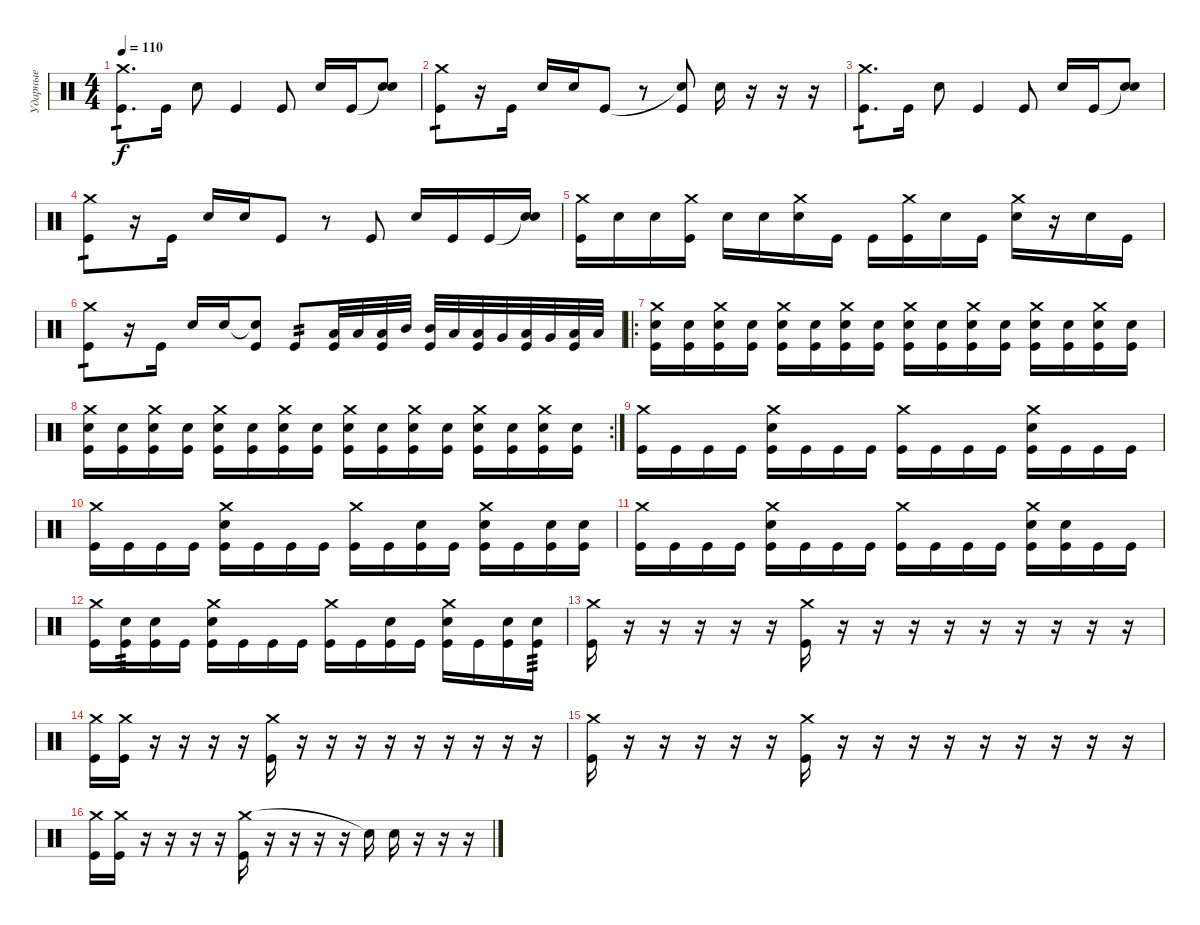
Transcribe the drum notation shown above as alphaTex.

\track ("Ударные" "Ударные") {instrument percussion}
\staff {score}
\articulation defaults
\ts (4 4)
\tempo 110
\clef neutral
\ks c
("Crash medium (hit)" "Kick (hit)").8{d tp 1 dy f} "Kick (hit)".16 "Electric Snare (hit)".8 "Kick (hit)".4 "Kick (hit)".8 "Electric Snare (hit)".16 "Kick (hit)".16 ("Snare (hit)"{t} "Electric Snare (hit)").8 |
("Crash medium (hit)" "Kick (hit)").8{tp 1} r.16 "Kick (hit)".16 "Electric Snare (hit)".16 "Electric Snare (hit)".16 "Kick (hit)".8 r.8 ("Snare (hit)"{t} "Kick (hit)").8 "Electric Snare (hit)".16 r.16 r.16 r.16 |
("Crash medium (hit)" "Kick (hit)").8{d tp 1} "Kick (hit)".16 "Electric Snare (hit)".8 "Kick (hit)".4 "Kick (hit)".8 "Electric Snare (hit)".16 "Kick (hit)".16 ("Snare (hit)"{t} "Electric Snare (hit)").8 |
("Crash medium (hit)" "Kick (hit)").8{tp 1} r.16 "Kick (hit)".16 "Electric Snare (hit)".16 "Electric Snare (hit)".16 "Kick (hit)".8 r.8 "Kick (hit)".8 "Electric Snare (hit)".16 "Kick (hit)".16 "Kick (hit)".16 ("Snare (hit)"{t} "Electric Snare (hit)").16 |
("Crash medium (hit)" "Kick (hit)").16 "Electric Snare (hit)".16 "Electric Snare (hit)".16 ("Crash medium (hit)" "Kick (hit)").16 "Electric Snare (hit)".16 "Electric Snare (hit)".16 ("Crash medium (hit)" "Electric Snare (hit)").16 "Kick (hit)".16 "Kick (hit)".16 ("Crash medium (hit)" "Kick (hit)").16 "Electric Snare (hit)".16 "Kick (hit)".16 ("Crash medium (hit)" "Electric Snare (hit)").16 r.16 "Electric Snare (hit)".16 "Kick (hit)".16 |
("Crash medium (hit)" "Kick (hit)").8{tp 1} r.16 "Kick (hit)".16 "Electric Snare (hit)".16 "Electric Snare (hit)".16 ("Snare (hit)"{t} "Kick (hit)").8 "Kick (hit)".8{tp 2} ("Low Tom (hit)" "Kick (hit)").32 "Low Tom (hit)".32 ("Low Tom (hit)" "Kick (hit)").32 "Mid Tom (hit)".32 ("Mid Tom (hit)" "Kick (hit)").32 "Low Tom (hit)".32 ("Low Tom (hit)" "Kick (hit)").32 "Very Low Tom (hit)".32 ("Low Floor Tom (hit)" "Kick (hit)").32 "Very Low Tom (hit)".32 ("Low Floor Tom (hit)" "Kick (hit)").32 "Low Floor Tom (hit)".32 |
\ro
("Crash medium (hit)" "Electric Snare (hit)" "Kick (hit)").16 ("Electric Snare (hit)" "Kick (hit)").16 ("Crash medium (hit)" "Electric Snare (hit)" "Kick (hit)").16 ("Electric Snare (hit)" "Kick (hit)").16 ("Crash medium (hit)" "Electric Snare (hit)" "Kick (hit)").16 ("Electric Snare (hit)" "Kick (hit)").16 ("Crash medium (hit)" "Electric Snare (hit)" "Kick (hit)").16 ("Electric Snare (hit)" "Kick (hit)").16 ("Crash medium (hit)" "Electric Snare (hit)" "Kick (hit)").16 ("Electric Snare (hit)" "Kick (hit)").16 ("Crash medium (hit)" "Electric Snare (hit)" "Kick (hit)").16 ("Electric Snare (hit)" "Kick (hit)").16 ("Crash medium (hit)" "Electric Snare (hit)" "Kick (hit)").16 ("Electric Snare (hit)" "Kick (hit)").16 ("Crash medium (hit)" "Electric Snare (hit)" "Kick (hit)").16 ("Electric Snare (hit)" "Kick (hit)").16 |
\rc 2
("Crash medium (hit)" "Electric Snare (hit)" "Kick (hit)").16 ("Electric Snare (hit)" "Kick (hit)").16 ("Crash medium (hit)" "Electric Snare (hit)" "Kick (hit)").16 ("Electric Snare (hit)" "Kick (hit)").16 ("Crash medium (hit)" "Electric Snare (hit)" "Kick (hit)").16 ("Electric Snare (hit)" "Kick (hit)").16 ("Crash medium (hit)" "Electric Snare (hit)" "Kick (hit)").16 ("Electric Snare (hit)" "Kick (hit)").16 ("Crash medium (hit)" "Electric Snare (hit)" "Kick (hit)").16 ("Electric Snare (hit)" "Kick (hit)").16 ("Crash medium (hit)" "Electric Snare (hit)" "Kick (hit)").16 ("Electric Snare (hit)" "Kick (hit)").16 ("Crash medium (hit)" "Electric Snare (hit)" "Kick (hit)").16 ("Electric Snare (hit)" "Kick (hit)").16 ("Crash medium (hit)" "Electric Snare (hit)" "Kick (hit)").16 ("Electric Snare (hit)" "Kick (hit)").16 |
("Crash medium (hit)" "Kick (hit)").16 "Kick (hit)".16 "Kick (hit)".16 "Kick (hit)".16 ("Crash medium (hit)" "Electric Snare (hit)" "Kick (hit)").16 "Kick (hit)".16 "Kick (hit)".16 "Kick (hit)".16 ("Crash medium (hit)" "Kick (hit)").16 "Kick (hit)".16 "Kick (hit)".16 "Kick (hit)".16 ("Crash medium (hit)" "Electric Snare (hit)" "Kick (hit)").16 "Kick (hit)".16 "Kick (hit)".16 "Kick (hit)".16 |
("Crash medium (hit)" "Kick (hit)").16 "Kick (hit)".16 "Kick (hit)".16 "Kick (hit)".16 ("Crash medium (hit)" "Electric Snare (hit)" "Kick (hit)").16 "Kick (hit)".16 "Kick (hit)".16 "Kick (hit)".16 ("Crash medium (hit)" "Kick (hit)").16 "Kick (hit)".16 ("Electric Snare (hit)" "Kick (hit)").16 "Kick (hit)".16 ("Crash medium (hit)" "Electric Snare (hit)" "Kick (hit)").16 "Kick (hit)".16 ("Electric Snare (hit)" "Kick (hit)").16 ("Electric Snare (hit)" "Kick (hit)").16 |
("Crash medium (hit)" "Kick (hit)").16 "Kick (hit)".16 "Kick (hit)".16 "Kick (hit)".16 ("Crash medium (hit)" "Electric Snare (hit)" "Kick (hit)").16 "Kick (hit)".16 "Kick (hit)".16 "Kick (hit)".16 ("Crash medium (hit)" "Kick (hit)").16 "Kick (hit)".16 "Kick (hit)".16 "Kick (hit)".16 ("Crash medium (hit)" "Electric Snare (hit)" "Kick (hit)").16 ("Electric Snare (hit)" "Kick (hit)").16 "Kick (hit)".16 "Kick (hit)".16 |
("Crash medium (hit)" "Kick (hit)").16 ("Electric Snare (hit)" "Kick (hit)").16{tp 3} ("Electric Snare (hit)" "Kick (hit)").16 "Kick (hit)".16 ("Crash medium (hit)" "Electric Snare (hit)" "Kick (hit)").16 "Kick (hit)".16 "Kick (hit)".16 "Kick (hit)".16 ("Crash medium (hit)" "Kick (hit)").16 "Kick (hit)".16 ("Electric Snare (hit)" "Kick (hit)").16 "Kick (hit)".16 ("Crash medium (hit)" "Electric Snare (hit)" "Kick (hit)").16 "Kick (hit)".16 ("Electric Snare (hit)" "Kick (hit)").16 ("Electric Snare (hit)" "Kick (hit)").16{tp 3} |
("Crash medium (hit)" "Kick (hit)").16 r.16 r.16 r.16 r.16 r.16 ("Crash medium (hit)" "Kick (hit)").16 r.16 r.16 r.16 r.16 r.16 r.16 r.16 r.16 r.16 |
("Crash medium (hit)" "Kick (hit)").16 ("Crash medium (hit)" "Kick (hit)").16 r.16 r.16 r.16 r.16 ("Crash medium (hit)" "Kick (hit)").16 r.16 r.16 r.16 r.16 r.16 r.16 r.16 r.16 r.16 |
("Crash medium (hit)" "Kick (hit)").16 r.16 r.16 r.16 r.16 r.16 ("Crash medium (hit)" "Kick (hit)").16 r.16 r.16 r.16 r.16 r.16 r.16 r.16 r.16 r.16 |
("Crash medium (hit)" "Kick (hit)").16 ("Crash medium (hit)" "Kick (hit)").16 r.16 r.16 r.16 r.16 ("Crash medium (hit)" "Kick (hit)").16 r.16 r.16 r.16 r.16 "Snare (hit)"{t}.16 "Electric Snare (hit)".16 r.16 r.16 r.16
